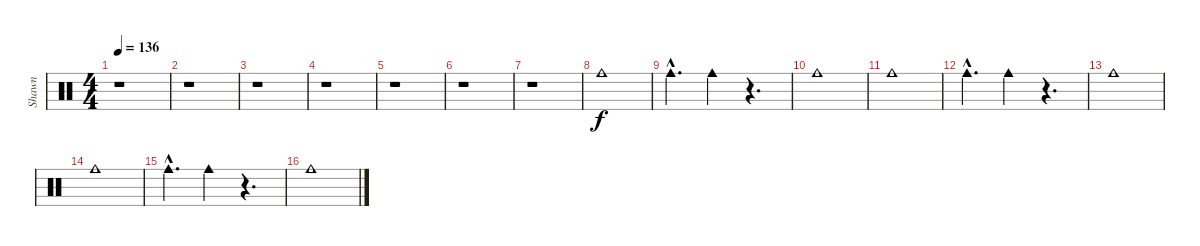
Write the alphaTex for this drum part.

\track ("Shawn" "Shawn") {instrument percussion}
\staff {score}
\articulation defaults
\ts (4 4)
\tempo 136
\clef neutral
\ks c
r.1{dy f} |
r.1 |
r.1 |
r.1 |
r.1 |
r.1 |
r.1 |
"Cowbell medium (hit)".1 |
"Cowbell medium (hit)"{hac}.4{d} "Cowbell medium (hit)".4 r.4{d} |
"Cowbell medium (hit)".1 |
"Cowbell medium (hit)".1 |
"Cowbell medium (hit)"{hac}.4{d} "Cowbell medium (hit)".4 r.4{d} |
"Cowbell medium (hit)".1 |
"Cowbell medium (hit)".1 |
"Cowbell medium (hit)"{hac}.4{d} "Cowbell medium (hit)".4 r.4{d} |
"Cowbell medium (hit)".1
